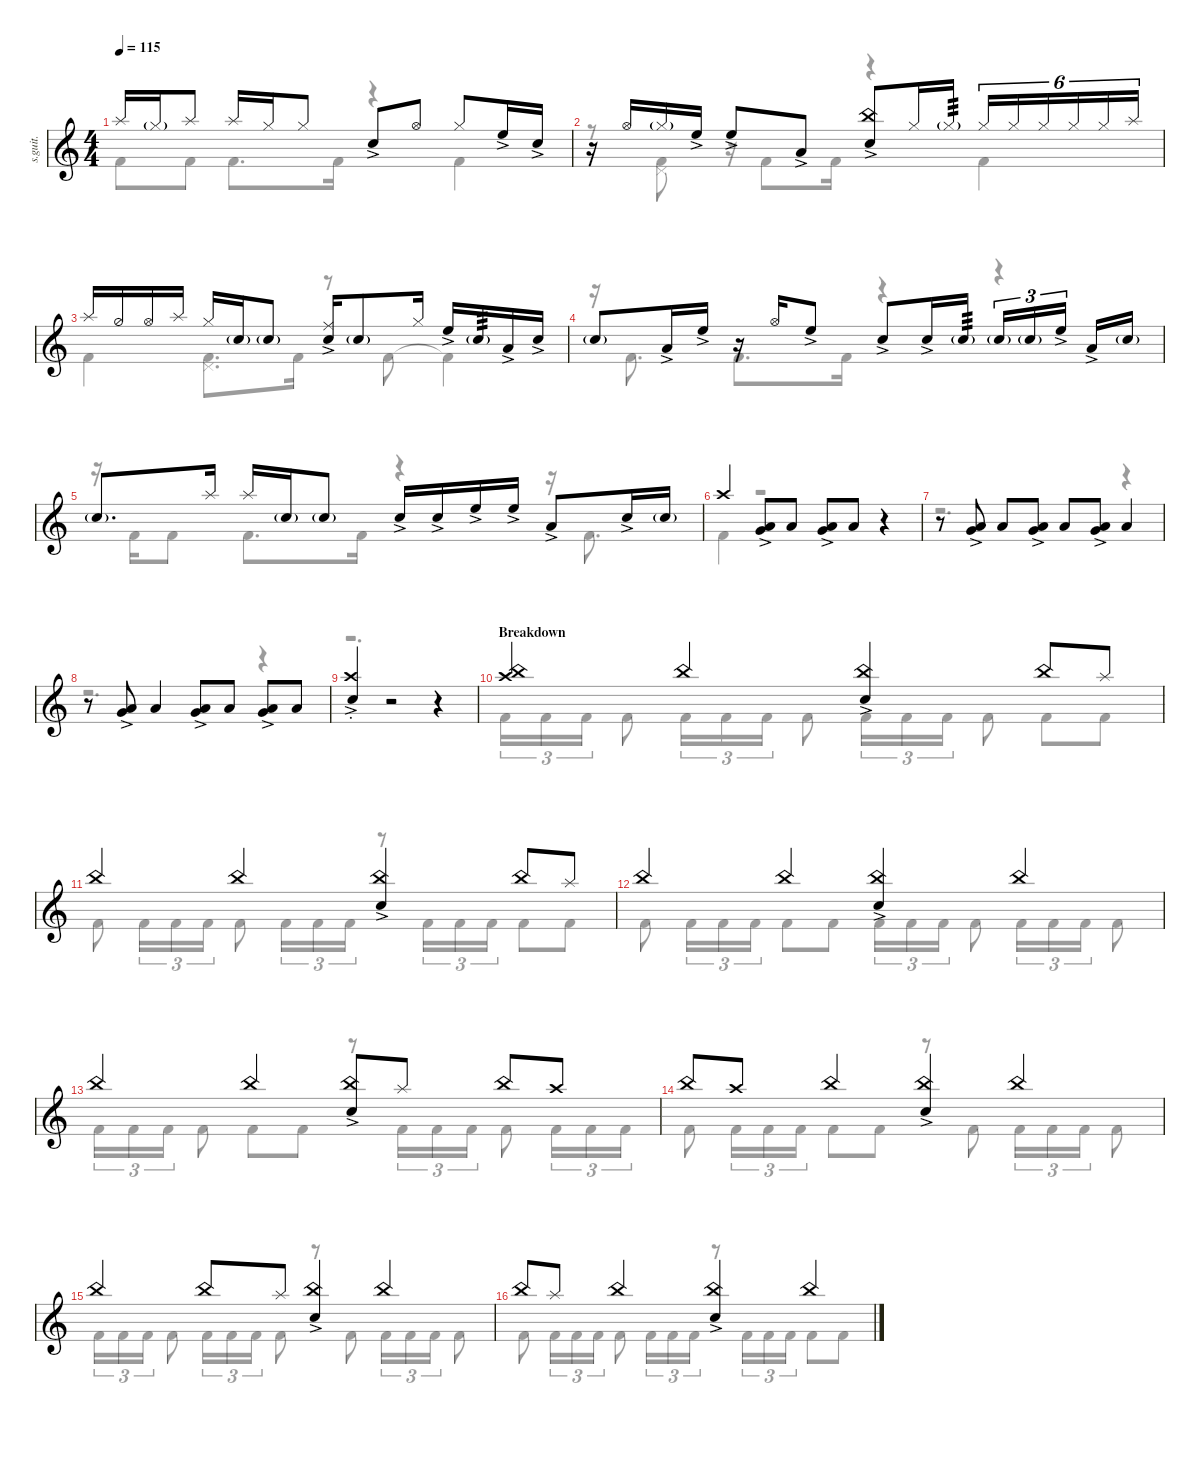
\defaultSystemsLayout 4
\hideDynamics
\bracketExtendMode nobrackets
\track ("Percussion" "s.guit.") {instrument percussion}
\staff {score}
\articulation defaults
\voice
\ts (4 4)
\tempo 115
\clef g2
\ks c "Splash (hit)".16{lyrics (0 "") lyrics (1 "") lyrics (2 "") lyrics (3 "") lyrics (4 "") dy mf} "Hi-Hat (closed)"{g}.16{lyrics (0 "") lyrics (1 "") lyrics (2 "") lyrics (3 "") lyrics (4 "") dy f} "Splash (hit)".8{lyrics (0 "") lyrics (1 "") lyrics (2 "") lyrics (3 "") lyrics (4 "") dy mf} "Splash (hit)".16{lyrics (0 "") lyrics (1 "") lyrics (2 "") lyrics (3 "") lyrics (4 "")} "Hi-Hat (closed)".16{lyrics (0 "") lyrics (1 "") lyrics (2 "") lyrics (3 "") lyrics (4 "")} "Hi-Hat (closed)".8{lyrics (0 "") lyrics (1 "") lyrics (2 "") lyrics (3 "") lyrics (4 "")} "Snare (hit) 2"{ac}.8{lyrics (0 "") lyrics (1 "") lyrics (2 "") lyrics (3 "") lyrics (4 "") dy mp} "Hi-Hat (open)".8{lyrics (0 "") lyrics (1 "") lyrics (2 "") lyrics (3 "") lyrics (4 "") dy mf} "Hi-Hat (closed)".8{lyrics (0 "") lyrics (1 "") lyrics (2 "") lyrics (3 "") lyrics (4 "")} "High Floor Tom (hit)"{ac}.16{lyrics (0 "") lyrics (1 "") lyrics (2 "") lyrics (3 "") lyrics (4 "") dy mp} "Snare (hit) 2"{ac}.16{lyrics (0 "") lyrics (1 "") lyrics (2 "") lyrics (3 "") lyrics (4 "")}
|
r.16 "Hi-Hat (open)".16{lyrics (0 "") lyrics (1 "") lyrics (2 "") lyrics (3 "") lyrics (4 "") dy mf} "Hi-Hat (closed)"{g}.16{lyrics (0 "") lyrics (1 "") lyrics (2 "") lyrics (3 "") lyrics (4 "") dy f} "High Floor Tom (hit)"{ac}.16{lyrics (0 "") lyrics (1 "") lyrics (2 "") lyrics (3 "") lyrics (4 "") dy mp} "High Floor Tom (hit)"{ac}.8{lyrics (0 "") lyrics (1 "") lyrics (2 "") lyrics (3 "") lyrics (4 "")} "Low Tom (hit)"{ac}.8{lyrics (0 "") lyrics (1 "") lyrics (2 "") lyrics (3 "") lyrics (4 "")} ("Snare (hit) 2"{ac} "China (hit)").8{lyrics (0 "") lyrics (1 "") lyrics (2 "") lyrics (3 "") lyrics (4 "") dy mf} "Hi-Hat (closed)".16{lyrics (0 "") lyrics (1 "") lyrics (2 "") lyrics (3 "") lyrics (4 "")} "Hi-Hat (closed)"{g}.16{lyrics (0 "") lyrics (1 "") lyrics (2 "") lyrics (3 "") lyrics (4 "") tp 3 dy f} "Hi-Hat (closed)".16{tu (6 4) lyrics (0 "") lyrics (1 "") lyrics (2 "") lyrics (3 "") lyrics (4 "") dy mf} "Hi-Hat (closed)".16{tu (6 4) lyrics (0 "") lyrics (1 "") lyrics (2 "") lyrics (3 "") lyrics (4 "")} "Hi-Hat (closed)".16{tu (6 4) lyrics (0 "") lyrics (1 "") lyrics (2 "") lyrics (3 "") lyrics (4 "")} "Hi-Hat (closed)".16{tu (6 4) lyrics (0 "") lyrics (1 "") lyrics (2 "") lyrics (3 "") lyrics (4 "")} "Hi-Hat (closed)".16{tu (6 4) lyrics (0 "") lyrics (1 "") lyrics (2 "") lyrics (3 "") lyrics (4 "")} "Splash (hit)".16{tu (6 4) lyrics (0 "") lyrics (1 "") lyrics (2 "") lyrics (3 "") lyrics (4 "")} |
"Splash (hit)".16{lyrics (0 "") lyrics (1 "") lyrics (2 "") lyrics (3 "") lyrics (4 "")} "Hi-Hat (half)".16{lyrics (0 "") lyrics (1 "") lyrics (2 "") lyrics (3 "") lyrics (4 "")} "Hi-Hat (open)".16{lyrics (0 "") lyrics (1 "") lyrics (2 "") lyrics (3 "") lyrics (4 "")} "Splash (hit)".16{lyrics (0 "") lyrics (1 "") lyrics (2 "") lyrics (3 "") lyrics (4 "")} "Hi-Hat (closed)".16{lyrics (0 "") lyrics (1 "") lyrics (2 "") lyrics (3 "") lyrics (4 "")} "Snare (hit) 2"{g}.16{lyrics (0 "") lyrics (1 "") lyrics (2 "") lyrics (3 "") lyrics (4 "") dy f} "Snare (hit) 2"{g}.8{lyrics (0 "") lyrics (1 "") lyrics (2 "") lyrics (3 "") lyrics (4 "")} ("Ride (middle)" "Snare (hit) 2"{ac}).16{lyrics (0 "") lyrics (1 "") lyrics (2 "") lyrics (3 "") lyrics (4 "") dy mf} "Snare (hit) 2"{g}.8{lyrics (0 "") lyrics (1 "") lyrics (2 "") lyrics (3 "") lyrics (4 "") dy f} "Hi-Hat (closed)".16{lyrics (0 "") lyrics (1 "") lyrics (2 "") lyrics (3 "") lyrics (4 "") dy mf} "High Floor Tom (hit)"{ac}.16{lyrics (0 "") lyrics (1 "") lyrics (2 "") lyrics (3 "") lyrics (4 "") dy mp} "Snare (hit) 2"{g}.16{lyrics (0 "") lyrics (1 "") lyrics (2 "") lyrics (3 "") lyrics (4 "") tp 3 dy f} "Low Tom (hit)"{ac}.16{lyrics (0 "") lyrics (1 "") lyrics (2 "") lyrics (3 "") lyrics (4 "") dy mp} "Snare (hit) 2"{ac}.16{lyrics (0 "") lyrics (1 "") lyrics (2 "") lyrics (3 "") lyrics (4 "")} |
"Snare (hit) 2"{g}.8{lyrics (0 "") lyrics (1 "") lyrics (2 "") lyrics (3 "") lyrics (4 "") dy f} "Low Tom (hit)"{ac}.16{lyrics (0 "") lyrics (1 "") lyrics (2 "") lyrics (3 "") lyrics (4 "") dy mp} "High Floor Tom (hit)"{ac}.16{lyrics (0 "") lyrics (1 "") lyrics (2 "") lyrics (3 "") lyrics (4 "")} r.16 "Hi-Hat (open)".16{lyrics (0 "") lyrics (1 "") lyrics (2 "") lyrics (3 "") lyrics (4 "") dy mf} "High Floor Tom (hit)"{ac}.8{lyrics (0 "") lyrics (1 "") lyrics (2 "") lyrics (3 "") lyrics (4 "") dy mp} "Snare (hit) 2"{ac}.8{lyrics (0 "") lyrics (1 "") lyrics (2 "") lyrics (3 "") lyrics (4 "")} "Snare (hit) 2"{ac}.16{lyrics (0 "") lyrics (1 "") lyrics (2 "") lyrics (3 "") lyrics (4 "")} "Snare (hit) 2"{g}.16{lyrics (0 "") lyrics (1 "") lyrics (2 "") lyrics (3 "") lyrics (4 "") tp 3 dy f} "Snare (hit) 2"{g}.16{tu (3 2) lyrics (0 "") lyrics (1 "") lyrics (2 "") lyrics (3 "") lyrics (4 "")} "Snare (hit) 2"{g}.16{tu (3 2) lyrics (0 "") lyrics (1 "") lyrics (2 "") lyrics (3 "") lyrics (4 "")} "High Floor Tom (hit)"{ac}.16{tu (3 2) lyrics (0 "") lyrics (1 "") lyrics (2 "") lyrics (3 "") lyrics (4 "") dy mp} "Low Tom (hit)"{ac}.16{lyrics (0 "") lyrics (1 "") lyrics (2 "") lyrics (3 "") lyrics (4 "")} "Snare (hit) 2"{g}.16{lyrics (0 "") lyrics (1 "") lyrics (2 "") lyrics (3 "") lyrics (4 "") dy f} |
"Snare (hit) 2"{g}.8{d lyrics (0 "") lyrics (1 "") lyrics (2 "") lyrics (3 "") lyrics (4 "")} "Splash (hit)".16{lyrics (0 "") lyrics (1 "") lyrics (2 "") lyrics (3 "") lyrics (4 "") dy mf} "Splash (hit)".16{lyrics (0 "") lyrics (1 "") lyrics (2 "") lyrics (3 "") lyrics (4 "")} "Snare (hit) 2"{g}.16{lyrics (0 "") lyrics (1 "") lyrics (2 "") lyrics (3 "") lyrics (4 "") dy f} "Snare (hit) 2"{g}.8{lyrics (0 "") lyrics (1 "") lyrics (2 "") lyrics (3 "") lyrics (4 "")} "Snare (hit) 2"{ac}.16{lyrics (0 "") lyrics (1 "") lyrics (2 "") lyrics (3 "") lyrics (4 "") dy mp} "Snare (hit) 2"{ac}.16{lyrics (0 "") lyrics (1 "") lyrics (2 "") lyrics (3 "") lyrics (4 "")} "High Floor Tom (hit)"{ac}.16{lyrics (0 "") lyrics (1 "") lyrics (2 "") lyrics (3 "") lyrics (4 "")} "High Floor Tom (hit)"{ac}.16{lyrics (0 "") lyrics (1 "") lyrics (2 "") lyrics (3 "") lyrics (4 "")} "Low Tom (hit)"{ac}.8{lyrics (0 "") lyrics (1 "") lyrics (2 "") lyrics (3 "") lyrics (4 "")} "Snare (hit) 2"{ac}.16{lyrics (0 "") lyrics (1 "") lyrics (2 "") lyrics (3 "") lyrics (4 "")} "Snare (hit) 2"{g}.16{lyrics (0 "") lyrics (1 "") lyrics (2 "") lyrics (3 "") lyrics (4 "") dy f} |
"Crash high (hit)".4{lyrics (0 "") lyrics (1 "") lyrics (2 "") lyrics (3 "") lyrics (4 "") dy mf} ("Low Tom (hit)"{ac} "Very Low Tom (hit)"{ac}).8{lyrics (0 "") lyrics (1 "") lyrics (2 "") lyrics (3 "") lyrics (4 "") dy mp} "Low Tom (hit)".8{lyrics (0 "") lyrics (1 "") lyrics (2 "") lyrics (3 "") lyrics (4 "") dy mf} ("Low Tom (hit)"{ac} "Very Low Tom (hit)"{ac}).8{lyrics (0 "") lyrics (1 "") lyrics (2 "") lyrics (3 "") lyrics (4 "") dy mp} "Low Tom (hit)".8{lyrics (0 "") lyrics (1 "") lyrics (2 "") lyrics (3 "") lyrics (4 "") dy mf} r.4 |
r.8 ("Low Tom (hit)"{ac} "Very Low Tom (hit)"{ac}).8{lyrics (0 "") lyrics (1 "") lyrics (2 "") lyrics (3 "") lyrics (4 "") dy mp} "Low Tom (hit)".8{lyrics (0 "") lyrics (1 "") lyrics (2 "") lyrics (3 "") lyrics (4 "") dy mf} ("Low Tom (hit)"{ac} "Very Low Tom (hit)"{ac}).8{lyrics (0 "") lyrics (1 "") lyrics (2 "") lyrics (3 "") lyrics (4 "") dy mp} "Low Tom (hit)".8{lyrics (0 "") lyrics (1 "") lyrics (2 "") lyrics (3 "") lyrics (4 "") dy mf} ("Low Tom (hit)"{ac} "Very Low Tom (hit)"{ac}).8{lyrics (0 "") lyrics (1 "") lyrics (2 "") lyrics (3 "") lyrics (4 "") dy mp} "Low Tom (hit)".4{lyrics (0 "") lyrics (1 "") lyrics (2 "") lyrics (3 "") lyrics (4 "") dy mf} |
r.8 ("Low Tom (hit)"{ac} "Very Low Tom (hit)"{ac}).8{lyrics (0 "") lyrics (1 "") lyrics (2 "") lyrics (3 "") lyrics (4 "") dy mp} "Low Tom (hit)".4{lyrics (0 "") lyrics (1 "") lyrics (2 "") lyrics (3 "") lyrics (4 "") dy mf} ("Low Tom (hit)"{ac} "Very Low Tom (hit)"{ac}).8{lyrics (0 "") lyrics (1 "") lyrics (2 "") lyrics (3 "") lyrics (4 "") dy mp} "Low Tom (hit)".8{lyrics (0 "") lyrics (1 "") lyrics (2 "") lyrics (3 "") lyrics (4 "") dy mf} ("Low Tom (hit)"{ac} "Very Low Tom (hit)"{ac}).8{lyrics (0 "") lyrics (1 "") lyrics (2 "") lyrics (3 "") lyrics (4 "") dy mp} "Low Tom (hit)".8{lyrics (0 "") lyrics (1 "") lyrics (2 "") lyrics (3 "") lyrics (4 "") dy mf} |
("Snare (hit) 2"{ac} "Crash high (hit)"{ac st}).4{lyrics (0 "") lyrics (1 "") lyrics (2 "") lyrics (3 "") lyrics (4 "") dy mp} r.2 r.4 |
\section ("" "Breakdown")
("China (hit)" "Crash high (hit)").4{lyrics (0 "") lyrics (1 "") lyrics (2 "") lyrics (3 "") lyrics (4 "") dy f} "China (hit)".4{lyrics (0 "") lyrics (1 "") lyrics (2 "") lyrics (3 "") lyrics (4 "")} ("China (hit)" "Snare (hit) 2"{ac}).4{lyrics (0 "") lyrics (1 "") lyrics (2 "") lyrics (3 "") lyrics (4 "")} "China (hit)".8{lyrics (0 "") lyrics (1 "") lyrics (2 "") lyrics (3 "") lyrics (4 "")} "Splash (hit)".8{lyrics (0 "") lyrics (1 "") lyrics (2 "") lyrics (3 "") lyrics (4 "")} |
"China (hit)".4{lyrics (0 "") lyrics (1 "") lyrics (2 "") lyrics (3 "") lyrics (4 "")} "China (hit)".4{lyrics (0 "") lyrics (1 "") lyrics (2 "") lyrics (3 "") lyrics (4 "")} ("China (hit)" "Snare (hit) 2"{ac}).4{lyrics (0 "") lyrics (1 "") lyrics (2 "") lyrics (3 "") lyrics (4 "")} "China (hit)".8{lyrics (0 "") lyrics (1 "") lyrics (2 "") lyrics (3 "") lyrics (4 "")} "Splash (hit)".8{lyrics (0 "") lyrics (1 "") lyrics (2 "") lyrics (3 "") lyrics (4 "")} |
"China (hit)".4{lyrics (0 "") lyrics (1 "") lyrics (2 "") lyrics (3 "") lyrics (4 "")} "China (hit)".4{lyrics (0 "") lyrics (1 "") lyrics (2 "") lyrics (3 "") lyrics (4 "")} ("China (hit)" "Snare (hit) 2"{ac}).4{lyrics (0 "") lyrics (1 "") lyrics (2 "") lyrics (3 "") lyrics (4 "")} "China (hit)".4{lyrics (0 "") lyrics (1 "") lyrics (2 "") lyrics (3 "") lyrics (4 "")} |
"China (hit)".4{lyrics (0 "") lyrics (1 "") lyrics (2 "") lyrics (3 "") lyrics (4 "")} "China (hit)".4{lyrics (0 "") lyrics (1 "") lyrics (2 "") lyrics (3 "") lyrics (4 "")} ("China (hit)" "Snare (hit) 2"{ac}).8{lyrics (0 "") lyrics (1 "") lyrics (2 "") lyrics (3 "") lyrics (4 "")} "Splash (hit)".8{lyrics (0 "") lyrics (1 "") lyrics (2 "") lyrics (3 "") lyrics (4 "")} "China (hit)".8{lyrics (0 "") lyrics (1 "") lyrics (2 "") lyrics (3 "") lyrics (4 "")} "Crash high (hit)".8{lyrics (0 "") lyrics (1 "") lyrics (2 "") lyrics (3 "") lyrics (4 "")} |
"China (hit)".8{lyrics (0 "") lyrics (1 "") lyrics (2 "") lyrics (3 "") lyrics (4 "")} "Crash high (hit)".8{lyrics (0 "") lyrics (1 "") lyrics (2 "") lyrics (3 "") lyrics (4 "")} "China (hit)".4{lyrics (0 "") lyrics (1 "") lyrics (2 "") lyrics (3 "") lyrics (4 "")} ("China (hit)" "Snare (hit) 2"{ac}).4{lyrics (0 "") lyrics (1 "") lyrics (2 "") lyrics (3 "") lyrics (4 "")} "China (hit)".4{lyrics (0 "") lyrics (1 "") lyrics (2 "") lyrics (3 "") lyrics (4 "")} |
"China (hit)".4{lyrics (0 "") lyrics (1 "") lyrics (2 "") lyrics (3 "") lyrics (4 "")} "China (hit)".8{lyrics (0 "") lyrics (1 "") lyrics (2 "") lyrics (3 "") lyrics (4 "")} "Splash (hit)".8{lyrics (0 "") lyrics (1 "") lyrics (2 "") lyrics (3 "") lyrics (4 "")} ("China (hit)" "Snare (hit) 2"{ac}).4{lyrics (0 "") lyrics (1 "") lyrics (2 "") lyrics (3 "") lyrics (4 "")} "China (hit)".4{lyrics (0 "") lyrics (1 "") lyrics (2 "") lyrics (3 "") lyrics (4 "")} |
"China (hit)".8{lyrics (0 "") lyrics (1 "") lyrics (2 "") lyrics (3 "") lyrics (4 "")} "Splash (hit)".8{lyrics (0 "") lyrics (1 "") lyrics (2 "") lyrics (3 "") lyrics (4 "")} "China (hit)".4{lyrics (0 "") lyrics (1 "") lyrics (2 "") lyrics (3 "") lyrics (4 "")} ("China (hit)" "Snare (hit) 2"{ac}).4{lyrics (0 "") lyrics (1 "") lyrics (2 "") lyrics (3 "") lyrics (4 "")} "China (hit)".4{lyrics (0 "") lyrics (1 "") lyrics (2 "") lyrics (3 "") lyrics (4 "")}
\voice
\clef g2
\ottava regular
\simile none
\ks c "Kick (hit) 2".8{lyrics (0 "") lyrics (1 "") lyrics (2 "") lyrics (3 "") lyrics (4 "") dy mf} "Kick (hit) 2".8{lyrics (0 "") lyrics (1 "") lyrics (2 "") lyrics (3 "") lyrics (4 "")} "Kick (hit) 2".8{d lyrics (0 "") lyrics (1 "") lyrics (2 "") lyrics (3 "") lyrics (4 "")} "Kick (hit) 2".16{lyrics (0 "") lyrics (1 "") lyrics (2 "") lyrics (3 "") lyrics (4 "")}
r.4 "Kick (hit) 2".4{lyrics (0 "") lyrics (1 "") lyrics (2 "") lyrics (3 "") lyrics (4 "")} |
r.8 ("Kick (hit) 2" "Pedal Hi-Hat (hit)").8{lyrics (0 "") lyrics (1 "") lyrics (2 "") lyrics (3 "") lyrics (4 "")} r.16 "Kick (hit) 2".8{lyrics (0 "") lyrics (1 "") lyrics (2 "") lyrics (3 "") lyrics (4 "")} "Kick (hit) 2".16{lyrics (0 "") lyrics (1 "") lyrics (2 "") lyrics (3 "") lyrics (4 "")} r.4 "Kick (hit) 2".4{lyrics (0 "") lyrics (1 "") lyrics (2 "") lyrics (3 "") lyrics (4 "")} |
"Kick (hit) 2".4{lyrics (0 "") lyrics (1 "") lyrics (2 "") lyrics (3 "") lyrics (4 "")} ("Kick (hit) 2" "Pedal Hi-Hat (hit)").8{d lyrics (0 "") lyrics (1 "") lyrics (2 "") lyrics (3 "") lyrics (4 "")} "Kick (hit) 2".16{lyrics (0 "") lyrics (1 "") lyrics (2 "") lyrics (3 "") lyrics (4 "")} r.8 "Kick (hit) 2".8{lyrics (0 "") lyrics (1 "") lyrics (2 "") lyrics (3 "") lyrics (4 "")} "Kick (hit) 2"{t}.4{lyrics (0 "") lyrics (1 "") lyrics (2 "") lyrics (3 "") lyrics (4 "")} |
r.16 "Kick (hit) 2".8{d lyrics (0 "") lyrics (1 "") lyrics (2 "") lyrics (3 "") lyrics (4 "")} "Kick (hit) 2".8{d lyrics (0 "") lyrics (1 "") lyrics (2 "") lyrics (3 "") lyrics (4 "")} "Kick (hit) 2".16{lyrics (0 "") lyrics (1 "") lyrics (2 "") lyrics (3 "") lyrics (4 "")} r.4 r.4 |
r.16 "Kick (hit) 2".16{lyrics (0 "") lyrics (1 "") lyrics (2 "") lyrics (3 "") lyrics (4 "")} "Kick (hit) 2".8{lyrics (0 "") lyrics (1 "") lyrics (2 "") lyrics (3 "") lyrics (4 "")} "Kick (hit) 2".8{d lyrics (0 "") lyrics (1 "") lyrics (2 "") lyrics (3 "") lyrics (4 "")} "Kick (hit) 2".16{lyrics (0 "") lyrics (1 "") lyrics (2 "") lyrics (3 "") lyrics (4 "")} r.4 r.16 "Kick (hit) 2".8{d lyrics (0 "") lyrics (1 "") lyrics (2 "") lyrics (3 "") lyrics (4 "")} |
"Kick (hit) 2".4{lyrics (0 "") lyrics (1 "") lyrics (2 "") lyrics (3 "") lyrics (4 "")} r.2 r.4 |
r.2{d} r.4 |
r.2{d} r.4 |
r.2{d} r.4 |
"Kick (hit) 2".16{tu (3 2) lyrics (0 "") lyrics (1 "") lyrics (2 "") lyrics (3 "") lyrics (4 "") dy f} "Kick (hit) 2".16{tu (3 2) lyrics (0 "") lyrics (1 "") lyrics (2 "") lyrics (3 "") lyrics (4 "")} "Kick (hit) 2".16{tu (3 2) lyrics (0 "") lyrics (1 "") lyrics (2 "") lyrics (3 "") lyrics (4 "")} "Kick (hit) 2".8{lyrics (0 "") lyrics (1 "") lyrics (2 "") lyrics (3 "") lyrics (4 "")} "Kick (hit) 2".16{tu (3 2) lyrics (0 "") lyrics (1 "") lyrics (2 "") lyrics (3 "") lyrics (4 "")} "Kick (hit) 2".16{tu (3 2) lyrics (0 "") lyrics (1 "") lyrics (2 "") lyrics (3 "") lyrics (4 "")} "Kick (hit) 2".16{tu (3 2) lyrics (0 "") lyrics (1 "") lyrics (2 "") lyrics (3 "") lyrics (4 "")} "Kick (hit) 2".8{lyrics (0 "") lyrics (1 "") lyrics (2 "") lyrics (3 "") lyrics (4 "")} "Kick (hit) 2".16{tu (3 2) lyrics (0 "") lyrics (1 "") lyrics (2 "") lyrics (3 "") lyrics (4 "")} "Kick (hit) 2".16{tu (3 2) lyrics (0 "") lyrics (1 "") lyrics (2 "") lyrics (3 "") lyrics (4 "")} "Kick (hit) 2".16{tu (3 2) lyrics (0 "") lyrics (1 "") lyrics (2 "") lyrics (3 "") lyrics (4 "")} "Kick (hit) 2".8{lyrics (0 "") lyrics (1 "") lyrics (2 "") lyrics (3 "") lyrics (4 "")} "Kick (hit) 2".8{lyrics (0 "") lyrics (1 "") lyrics (2 "") lyrics (3 "") lyrics (4 "")} "Kick (hit) 2".8{lyrics (0 "") lyrics (1 "") lyrics (2 "") lyrics (3 "") lyrics (4 "")} |
"Kick (hit) 2".8{lyrics (0 "") lyrics (1 "") lyrics (2 "") lyrics (3 "") lyrics (4 "")} "Kick (hit) 2".16{tu (3 2) lyrics (0 "") lyrics (1 "") lyrics (2 "") lyrics (3 "") lyrics (4 "")} "Kick (hit) 2".16{tu (3 2) lyrics (0 "") lyrics (1 "") lyrics (2 "") lyrics (3 "") lyrics (4 "")} "Kick (hit) 2".16{tu (3 2) lyrics (0 "") lyrics (1 "") lyrics (2 "") lyrics (3 "") lyrics (4 "")} "Kick (hit) 2".8{lyrics (0 "") lyrics (1 "") lyrics (2 "") lyrics (3 "") lyrics (4 "")} "Kick (hit) 2".16{tu (3 2) lyrics (0 "") lyrics (1 "") lyrics (2 "") lyrics (3 "") lyrics (4 "")} "Kick (hit) 2".16{tu (3 2) lyrics (0 "") lyrics (1 "") lyrics (2 "") lyrics (3 "") lyrics (4 "")} "Kick (hit) 2".16{tu (3 2) lyrics (0 "") lyrics (1 "") lyrics (2 "") lyrics (3 "") lyrics (4 "")} r.8 "Kick (hit) 2".16{tu (3 2) lyrics (0 "") lyrics (1 "") lyrics (2 "") lyrics (3 "") lyrics (4 "")} "Kick (hit) 2".16{tu (3 2) lyrics (0 "") lyrics (1 "") lyrics (2 "") lyrics (3 "") lyrics (4 "")} "Kick (hit) 2".16{tu (3 2) lyrics (0 "") lyrics (1 "") lyrics (2 "") lyrics (3 "") lyrics (4 "")} "Kick (hit) 2".8{lyrics (0 "") lyrics (1 "") lyrics (2 "") lyrics (3 "") lyrics (4 "")} "Kick (hit) 2".8{lyrics (0 "") lyrics (1 "") lyrics (2 "") lyrics (3 "") lyrics (4 "")} |
"Kick (hit) 2".8{lyrics (0 "") lyrics (1 "") lyrics (2 "") lyrics (3 "") lyrics (4 "")} "Kick (hit) 2".16{tu (3 2) lyrics (0 "") lyrics (1 "") lyrics (2 "") lyrics (3 "") lyrics (4 "")} "Kick (hit) 2".16{tu (3 2) lyrics (0 "") lyrics (1 "") lyrics (2 "") lyrics (3 "") lyrics (4 "")} "Kick (hit) 2".16{tu (3 2) lyrics (0 "") lyrics (1 "") lyrics (2 "") lyrics (3 "") lyrics (4 "")} "Kick (hit) 2".8{lyrics (0 "") lyrics (1 "") lyrics (2 "") lyrics (3 "") lyrics (4 "")} "Kick (hit) 2".8{lyrics (0 "") lyrics (1 "") lyrics (2 "") lyrics (3 "") lyrics (4 "")} "Kick (hit) 2".16{tu (3 2) lyrics (0 "") lyrics (1 "") lyrics (2 "") lyrics (3 "") lyrics (4 "")} "Kick (hit) 2".16{tu (3 2) lyrics (0 "") lyrics (1 "") lyrics (2 "") lyrics (3 "") lyrics (4 "")} "Kick (hit) 2".16{tu (3 2) lyrics (0 "") lyrics (1 "") lyrics (2 "") lyrics (3 "") lyrics (4 "")} "Kick (hit) 2".8{lyrics (0 "") lyrics (1 "") lyrics (2 "") lyrics (3 "") lyrics (4 "")} "Kick (hit) 2".16{tu (3 2) lyrics (0 "") lyrics (1 "") lyrics (2 "") lyrics (3 "") lyrics (4 "")} "Kick (hit) 2".16{tu (3 2) lyrics (0 "") lyrics (1 "") lyrics (2 "") lyrics (3 "") lyrics (4 "")} "Kick (hit) 2".16{tu (3 2) lyrics (0 "") lyrics (1 "") lyrics (2 "") lyrics (3 "") lyrics (4 "")} "Kick (hit) 2".8{lyrics (0 "") lyrics (1 "") lyrics (2 "") lyrics (3 "") lyrics (4 "")} |
"Kick (hit) 2".16{tu (3 2) lyrics (0 "") lyrics (1 "") lyrics (2 "") lyrics (3 "") lyrics (4 "")} "Kick (hit) 2".16{tu (3 2) lyrics (0 "") lyrics (1 "") lyrics (2 "") lyrics (3 "") lyrics (4 "")} "Kick (hit) 2".16{tu (3 2) lyrics (0 "") lyrics (1 "") lyrics (2 "") lyrics (3 "") lyrics (4 "")} "Kick (hit) 2".8{lyrics (0 "") lyrics (1 "") lyrics (2 "") lyrics (3 "") lyrics (4 "")} "Kick (hit) 2".8{lyrics (0 "") lyrics (1 "") lyrics (2 "") lyrics (3 "") lyrics (4 "")} "Kick (hit) 2".8{lyrics (0 "") lyrics (1 "") lyrics (2 "") lyrics (3 "") lyrics (4 "")} r.8 "Kick (hit) 2".16{tu (3 2) lyrics (0 "") lyrics (1 "") lyrics (2 "") lyrics (3 "") lyrics (4 "")} "Kick (hit) 2".16{tu (3 2) lyrics (0 "") lyrics (1 "") lyrics (2 "") lyrics (3 "") lyrics (4 "")} "Kick (hit) 2".16{tu (3 2) lyrics (0 "") lyrics (1 "") lyrics (2 "") lyrics (3 "") lyrics (4 "")} "Kick (hit) 2".8{lyrics (0 "") lyrics (1 "") lyrics (2 "") lyrics (3 "") lyrics (4 "")} "Kick (hit) 2".16{tu (3 2) lyrics (0 "") lyrics (1 "") lyrics (2 "") lyrics (3 "") lyrics (4 "")} "Kick (hit) 2".16{tu (3 2) lyrics (0 "") lyrics (1 "") lyrics (2 "") lyrics (3 "") lyrics (4 "")} "Kick (hit) 2".16{tu (3 2) lyrics (0 "") lyrics (1 "") lyrics (2 "") lyrics (3 "") lyrics (4 "")} |
"Kick (hit) 2".8{lyrics (0 "") lyrics (1 "") lyrics (2 "") lyrics (3 "") lyrics (4 "")} "Kick (hit) 2".16{tu (3 2) lyrics (0 "") lyrics (1 "") lyrics (2 "") lyrics (3 "") lyrics (4 "")} "Kick (hit) 2".16{tu (3 2) lyrics (0 "") lyrics (1 "") lyrics (2 "") lyrics (3 "") lyrics (4 "")} "Kick (hit) 2".16{tu (3 2) lyrics (0 "") lyrics (1 "") lyrics (2 "") lyrics (3 "") lyrics (4 "")} "Kick (hit) 2".8{lyrics (0 "") lyrics (1 "") lyrics (2 "") lyrics (3 "") lyrics (4 "")} "Kick (hit) 2".8{lyrics (0 "") lyrics (1 "") lyrics (2 "") lyrics (3 "") lyrics (4 "")} r.8 "Kick (hit) 2".8{lyrics (0 "") lyrics (1 "") lyrics (2 "") lyrics (3 "") lyrics (4 "")} "Kick (hit) 2".16{tu (3 2) lyrics (0 "") lyrics (1 "") lyrics (2 "") lyrics (3 "") lyrics (4 "")} "Kick (hit) 2".16{tu (3 2) lyrics (0 "") lyrics (1 "") lyrics (2 "") lyrics (3 "") lyrics (4 "")} "Kick (hit) 2".16{tu (3 2) lyrics (0 "") lyrics (1 "") lyrics (2 "") lyrics (3 "") lyrics (4 "")} "Kick (hit) 2".8{lyrics (0 "") lyrics (1 "") lyrics (2 "") lyrics (3 "") lyrics (4 "")} |
"Kick (hit) 2".16{tu (3 2) lyrics (0 "") lyrics (1 "") lyrics (2 "") lyrics (3 "") lyrics (4 "")} "Kick (hit) 2".16{tu (3 2) lyrics (0 "") lyrics (1 "") lyrics (2 "") lyrics (3 "") lyrics (4 "")} "Kick (hit) 2".16{tu (3 2) lyrics (0 "") lyrics (1 "") lyrics (2 "") lyrics (3 "") lyrics (4 "")} "Kick (hit) 2".8{lyrics (0 "") lyrics (1 "") lyrics (2 "") lyrics (3 "") lyrics (4 "")} "Kick (hit) 2".16{tu (3 2) lyrics (0 "") lyrics (1 "") lyrics (2 "") lyrics (3 "") lyrics (4 "")} "Kick (hit) 2".16{tu (3 2) lyrics (0 "") lyrics (1 "") lyrics (2 "") lyrics (3 "") lyrics (4 "")} "Kick (hit) 2".16{tu (3 2) lyrics (0 "") lyrics (1 "") lyrics (2 "") lyrics (3 "") lyrics (4 "")} "Kick (hit) 2".8{lyrics (0 "") lyrics (1 "") lyrics (2 "") lyrics (3 "") lyrics (4 "")} r.8 "Kick (hit) 2".8{lyrics (0 "") lyrics (1 "") lyrics (2 "") lyrics (3 "") lyrics (4 "")} "Kick (hit) 2".16{tu (3 2) lyrics (0 "") lyrics (1 "") lyrics (2 "") lyrics (3 "") lyrics (4 "")} "Kick (hit) 2".16{tu (3 2) lyrics (0 "") lyrics (1 "") lyrics (2 "") lyrics (3 "") lyrics (4 "")} "Kick (hit) 2".16{tu (3 2) lyrics (0 "") lyrics (1 "") lyrics (2 "") lyrics (3 "") lyrics (4 "")} "Kick (hit) 2".8{lyrics (0 "") lyrics (1 "") lyrics (2 "") lyrics (3 "") lyrics (4 "")} |
"Kick (hit) 2".8{lyrics (0 "") lyrics (1 "") lyrics (2 "") lyrics (3 "") lyrics (4 "")} "Kick (hit) 2".16{tu (3 2) lyrics (0 "") lyrics (1 "") lyrics (2 "") lyrics (3 "") lyrics (4 "")} "Kick (hit) 2".16{tu (3 2) lyrics (0 "") lyrics (1 "") lyrics (2 "") lyrics (3 "") lyrics (4 "")} "Kick (hit) 2".16{tu (3 2) lyrics (0 "") lyrics (1 "") lyrics (2 "") lyrics (3 "") lyrics (4 "")} "Kick (hit) 2".8{lyrics (0 "") lyrics (1 "") lyrics (2 "") lyrics (3 "") lyrics (4 "")} "Kick (hit) 2".16{tu (3 2) lyrics (0 "") lyrics (1 "") lyrics (2 "") lyrics (3 "") lyrics (4 "")} "Kick (hit) 2".16{tu (3 2) lyrics (0 "") lyrics (1 "") lyrics (2 "") lyrics (3 "") lyrics (4 "")} "Kick (hit) 2".16{tu (3 2) lyrics (0 "") lyrics (1 "") lyrics (2 "") lyrics (3 "") lyrics (4 "")} r.8 "Kick (hit) 2".16{tu (3 2) lyrics (0 "") lyrics (1 "") lyrics (2 "") lyrics (3 "") lyrics (4 "")} "Kick (hit) 2".16{tu (3 2) lyrics (0 "") lyrics (1 "") lyrics (2 "") lyrics (3 "") lyrics (4 "")} "Kick (hit) 2".16{tu (3 2) lyrics (0 "") lyrics (1 "") lyrics (2 "") lyrics (3 "") lyrics (4 "")} "Kick (hit) 2".8{lyrics (0 "") lyrics (1 "") lyrics (2 "") lyrics (3 "") lyrics (4 "")} "Kick (hit) 2".8{lyrics (0 "") lyrics (1 "") lyrics (2 "") lyrics (3 "") lyrics (4 "")}
